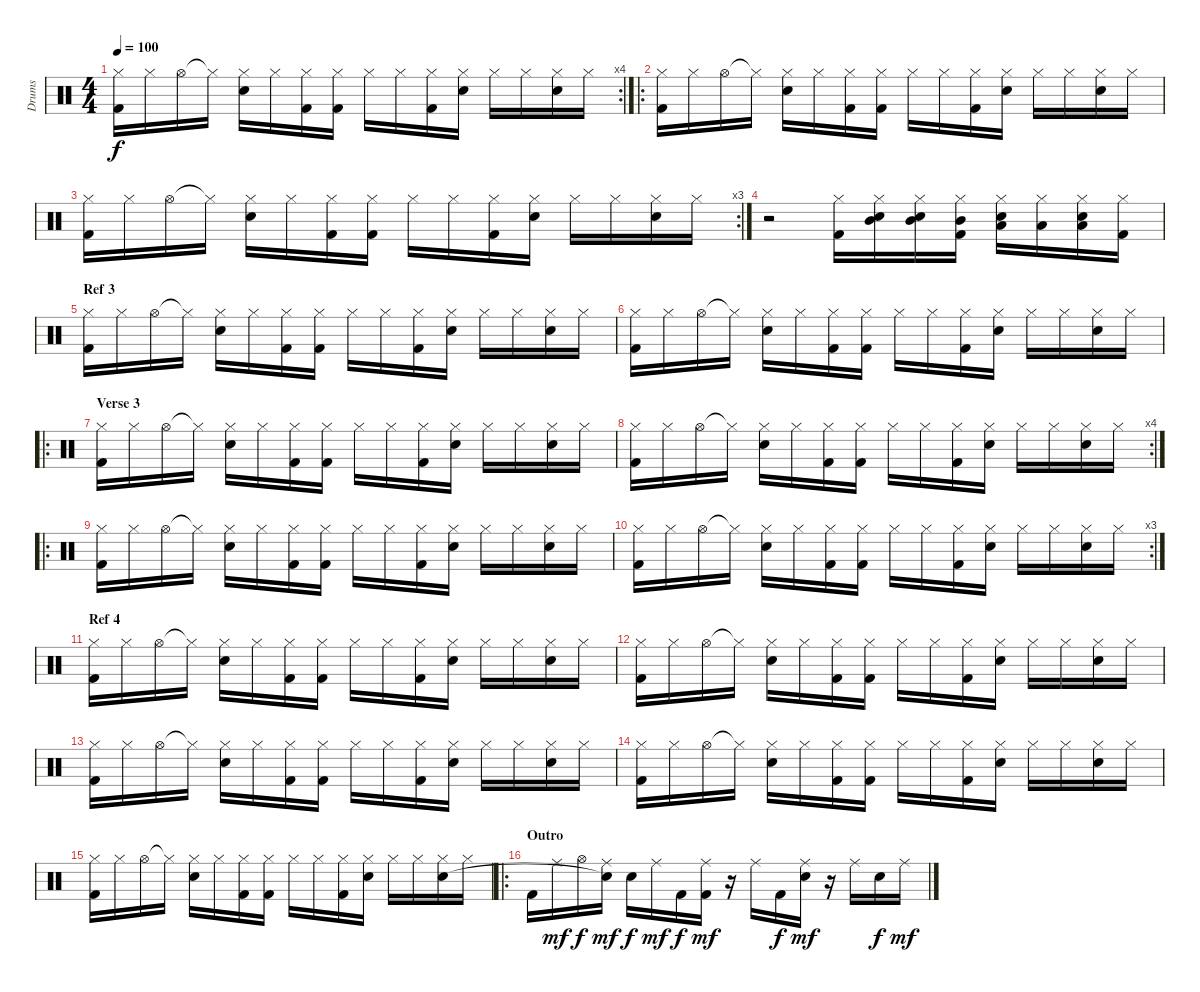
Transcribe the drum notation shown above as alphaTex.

\track ("Drums" "Drums") {instrument percussion}
\staff {score}
\articulation defaults
\rc 4
\ts (4 4)
\tempo 100
\clef neutral
\ks c
("Hi-Hat (closed)" "Kick (hit) 2").16{dy f} "Hi-Hat (closed)".16 "Hi-Hat (open)".16 "Hi-Hat (closed)"{t}.16 ("Hi-Hat (closed)" "Electric Snare (hit)").16 "Hi-Hat (closed)".16 ("Hi-Hat (closed)" "Kick (hit) 2").16 ("Hi-Hat (closed)" "Kick (hit) 2").16 "Hi-Hat (closed)".16 "Hi-Hat (closed)".16 ("Hi-Hat (closed)" "Kick (hit) 2").16 ("Hi-Hat (closed)" "Electric Snare (hit)").16 "Hi-Hat (closed)".16 "Hi-Hat (closed)".16 ("Hi-Hat (closed)" "Electric Snare (hit)").16 "Hi-Hat (closed)".16 |
\ro
("Hi-Hat (closed)" "Kick (hit) 2").16 "Hi-Hat (closed)".16 "Hi-Hat (open)".16 "Hi-Hat (closed)"{t}.16 ("Hi-Hat (closed)" "Electric Snare (hit)").16 "Hi-Hat (closed)".16 ("Hi-Hat (closed)" "Kick (hit) 2").16 ("Hi-Hat (closed)" "Kick (hit) 2").16 "Hi-Hat (closed)".16 "Hi-Hat (closed)".16 ("Hi-Hat (closed)" "Kick (hit) 2").16 ("Hi-Hat (closed)" "Electric Snare (hit)").16 "Hi-Hat (closed)".16 "Hi-Hat (closed)".16 ("Hi-Hat (closed)" "Electric Snare (hit)").16 "Hi-Hat (closed)".16 |
\rc 3
("Hi-Hat (closed)" "Kick (hit) 2").16 "Hi-Hat (closed)".16 "Hi-Hat (open)".16 "Hi-Hat (closed)"{t}.16 ("Hi-Hat (closed)" "Electric Snare (hit)").16 "Hi-Hat (closed)".16 ("Hi-Hat (closed)" "Kick (hit) 2").16 ("Hi-Hat (closed)" "Kick (hit) 2").16 "Hi-Hat (closed)".16 "Hi-Hat (closed)".16 ("Hi-Hat (closed)" "Kick (hit) 2").16 ("Hi-Hat (closed)" "Electric Snare (hit)").16 "Hi-Hat (closed)".16 "Hi-Hat (closed)".16 ("Hi-Hat (closed)" "Electric Snare (hit)").16 "Hi-Hat (closed)".16 |
r.2 ("Hi-Hat (closed)" "Kick (hit) 2").16 ("Hi-Hat (closed)" "Mid Tom (hit)" "Electric Snare (hit)").16 ("Hi-Hat (closed)" "Mid Tom (hit)" "Electric Snare (hit)").16 ("Hi-Hat (closed)" "Mid Tom (hit)" "Kick (hit) 2").16 ("Hi-Hat (closed)" "Low Tom (hit)" "Electric Snare (hit)").16 ("Hi-Hat (closed)" "Low Tom (hit)").16 ("Hi-Hat (closed)" "Low Tom (hit)" "Electric Snare (hit)").16 ("Hi-Hat (closed)" "Kick (hit) 2").16 |
\section ("" "Ref 3")
("Hi-Hat (closed)" "Kick (hit) 2").16 "Hi-Hat (closed)".16 "Hi-Hat (open)".16 "Hi-Hat (closed)"{t}.16 ("Hi-Hat (closed)" "Electric Snare (hit)").16 "Hi-Hat (closed)".16 ("Hi-Hat (closed)" "Kick (hit) 2").16 ("Hi-Hat (closed)" "Kick (hit) 2").16 "Hi-Hat (closed)".16 "Hi-Hat (closed)".16 ("Hi-Hat (closed)" "Kick (hit) 2").16 ("Hi-Hat (closed)" "Electric Snare (hit)").16 "Hi-Hat (closed)".16 "Hi-Hat (closed)".16 ("Hi-Hat (closed)" "Electric Snare (hit)").16 "Hi-Hat (closed)".16 |
("Hi-Hat (closed)" "Kick (hit) 2").16 "Hi-Hat (closed)".16 "Hi-Hat (open)".16 "Hi-Hat (closed)"{t}.16 ("Hi-Hat (closed)" "Electric Snare (hit)").16 "Hi-Hat (closed)".16 ("Hi-Hat (closed)" "Kick (hit) 2").16 ("Hi-Hat (closed)" "Kick (hit) 2").16 "Hi-Hat (closed)".16 "Hi-Hat (closed)".16 ("Hi-Hat (closed)" "Kick (hit) 2").16 ("Hi-Hat (closed)" "Electric Snare (hit)").16 "Hi-Hat (closed)".16 "Hi-Hat (closed)".16 ("Hi-Hat (closed)" "Electric Snare (hit)").16 "Hi-Hat (closed)".16 |
\ro
\section ("" "Verse 3")
("Hi-Hat (closed)" "Kick (hit) 2").16 "Hi-Hat (closed)".16 "Hi-Hat (open)".16 "Hi-Hat (closed)"{t}.16 ("Hi-Hat (closed)" "Electric Snare (hit)").16 "Hi-Hat (closed)".16 ("Hi-Hat (closed)" "Kick (hit) 2").16 ("Hi-Hat (closed)" "Kick (hit) 2").16 "Hi-Hat (closed)".16 "Hi-Hat (closed)".16 ("Hi-Hat (closed)" "Kick (hit) 2").16 ("Hi-Hat (closed)" "Electric Snare (hit)").16 "Hi-Hat (closed)".16 "Hi-Hat (closed)".16 ("Hi-Hat (closed)" "Electric Snare (hit)").16 "Hi-Hat (closed)".16 |
\rc 4
("Hi-Hat (closed)" "Kick (hit) 2").16 "Hi-Hat (closed)".16 "Hi-Hat (open)".16 "Hi-Hat (closed)"{t}.16 ("Hi-Hat (closed)" "Electric Snare (hit)").16 "Hi-Hat (closed)".16 ("Hi-Hat (closed)" "Kick (hit) 2").16 ("Hi-Hat (closed)" "Kick (hit) 2").16 "Hi-Hat (closed)".16 "Hi-Hat (closed)".16 ("Hi-Hat (closed)" "Kick (hit) 2").16 ("Hi-Hat (closed)" "Electric Snare (hit)").16 "Hi-Hat (closed)".16 "Hi-Hat (closed)".16 ("Hi-Hat (closed)" "Electric Snare (hit)").16 "Hi-Hat (closed)".16 |
\ro
("Hi-Hat (closed)" "Kick (hit) 2").16 "Hi-Hat (closed)".16 "Hi-Hat (open)".16 "Hi-Hat (closed)"{t}.16 ("Hi-Hat (closed)" "Electric Snare (hit)").16 "Hi-Hat (closed)".16 ("Hi-Hat (closed)" "Kick (hit) 2").16 ("Hi-Hat (closed)" "Kick (hit) 2").16 "Hi-Hat (closed)".16 "Hi-Hat (closed)".16 ("Hi-Hat (closed)" "Kick (hit) 2").16 ("Hi-Hat (closed)" "Electric Snare (hit)").16 "Hi-Hat (closed)".16 "Hi-Hat (closed)".16 ("Hi-Hat (closed)" "Electric Snare (hit)").16 "Hi-Hat (closed)".16 |
\rc 3
("Hi-Hat (closed)" "Kick (hit) 2").16 "Hi-Hat (closed)".16 "Hi-Hat (open)".16 "Hi-Hat (closed)"{t}.16 ("Hi-Hat (closed)" "Electric Snare (hit)").16 "Hi-Hat (closed)".16 ("Hi-Hat (closed)" "Kick (hit) 2").16 ("Hi-Hat (closed)" "Kick (hit) 2").16 "Hi-Hat (closed)".16 "Hi-Hat (closed)".16 ("Hi-Hat (closed)" "Kick (hit) 2").16 ("Hi-Hat (closed)" "Electric Snare (hit)").16 "Hi-Hat (closed)".16 "Hi-Hat (closed)".16 ("Hi-Hat (closed)" "Electric Snare (hit)").16 "Hi-Hat (closed)".16 |
\section ("" "Ref 4")
("Hi-Hat (closed)" "Kick (hit) 2").16 "Hi-Hat (closed)".16 "Hi-Hat (open)".16 "Hi-Hat (closed)"{t}.16 ("Hi-Hat (closed)" "Electric Snare (hit)").16 "Hi-Hat (closed)".16 ("Hi-Hat (closed)" "Kick (hit) 2").16 ("Hi-Hat (closed)" "Kick (hit) 2").16 "Hi-Hat (closed)".16 "Hi-Hat (closed)".16 ("Hi-Hat (closed)" "Kick (hit) 2").16 ("Hi-Hat (closed)" "Electric Snare (hit)").16 "Hi-Hat (closed)".16 "Hi-Hat (closed)".16 ("Hi-Hat (closed)" "Electric Snare (hit)").16 "Hi-Hat (closed)".16 |
("Hi-Hat (closed)" "Kick (hit) 2").16 "Hi-Hat (closed)".16 "Hi-Hat (open)".16 "Hi-Hat (closed)"{t}.16 ("Hi-Hat (closed)" "Electric Snare (hit)").16 "Hi-Hat (closed)".16 ("Hi-Hat (closed)" "Kick (hit) 2").16 ("Hi-Hat (closed)" "Kick (hit) 2").16 "Hi-Hat (closed)".16 "Hi-Hat (closed)".16 ("Hi-Hat (closed)" "Kick (hit) 2").16 ("Hi-Hat (closed)" "Electric Snare (hit)").16 "Hi-Hat (closed)".16 "Hi-Hat (closed)".16 ("Hi-Hat (closed)" "Electric Snare (hit)").16 "Hi-Hat (closed)".16 |
("Hi-Hat (closed)" "Kick (hit) 2").16 "Hi-Hat (closed)".16 "Hi-Hat (open)".16 "Hi-Hat (closed)"{t}.16 ("Hi-Hat (closed)" "Electric Snare (hit)").16 "Hi-Hat (closed)".16 ("Hi-Hat (closed)" "Kick (hit) 2").16 ("Hi-Hat (closed)" "Kick (hit) 2").16 "Hi-Hat (closed)".16 "Hi-Hat (closed)".16 ("Hi-Hat (closed)" "Kick (hit) 2").16 ("Hi-Hat (closed)" "Electric Snare (hit)").16 "Hi-Hat (closed)".16 "Hi-Hat (closed)".16 ("Hi-Hat (closed)" "Electric Snare (hit)").16 "Hi-Hat (closed)".16 |
("Hi-Hat (closed)" "Kick (hit) 2").16 "Hi-Hat (closed)".16 "Hi-Hat (open)".16 "Hi-Hat (closed)"{t}.16 ("Hi-Hat (closed)" "Electric Snare (hit)").16 "Hi-Hat (closed)".16 ("Hi-Hat (closed)" "Kick (hit) 2").16 ("Hi-Hat (closed)" "Kick (hit) 2").16 "Hi-Hat (closed)".16 "Hi-Hat (closed)".16 ("Hi-Hat (closed)" "Kick (hit) 2").16 ("Hi-Hat (closed)" "Electric Snare (hit)").16 "Hi-Hat (closed)".16 "Hi-Hat (closed)".16 ("Hi-Hat (closed)" "Electric Snare (hit)").16 "Hi-Hat (closed)".16 |
("Hi-Hat (closed)" "Kick (hit) 2").16 "Hi-Hat (closed)".16 "Hi-Hat (open)".16 "Hi-Hat (closed)"{t}.16 ("Hi-Hat (closed)" "Electric Snare (hit)").16 "Hi-Hat (closed)".16 ("Hi-Hat (closed)" "Kick (hit) 2").16 ("Hi-Hat (closed)" "Kick (hit) 2").16 "Hi-Hat (closed)".16 "Hi-Hat (closed)".16 ("Hi-Hat (closed)" "Kick (hit) 2").16 ("Hi-Hat (closed)" "Electric Snare (hit)").16 "Hi-Hat (closed)".16 "Hi-Hat (closed)".16 ("Hi-Hat (closed)" "Electric Snare (hit)").16 "Hi-Hat (closed)".16 |
\ro
\section ("" "Outro")
"Kick (hit) 2".16 "Ride (middle)".16{dy mf} "Hi-Hat (open)".16{dy f} ("Ride (middle)" "Snare (hit)"{t}).16{dy mf} "Electric Snare (hit)".16{dy f} "Ride (middle)".16{dy mf} "Kick (hit) 2".16{dy f} ("Ride (middle)" "Kick (hit) 2").16{dy mf} r.16 "Ride (middle)".16 "Kick (hit) 2".16{dy f} ("Ride (middle)" "Electric Snare (hit)").16{dy mf} r.16 "Ride (middle)".16 "Electric Snare (hit)".16{dy f} "Ride (middle)".16{dy mf}
